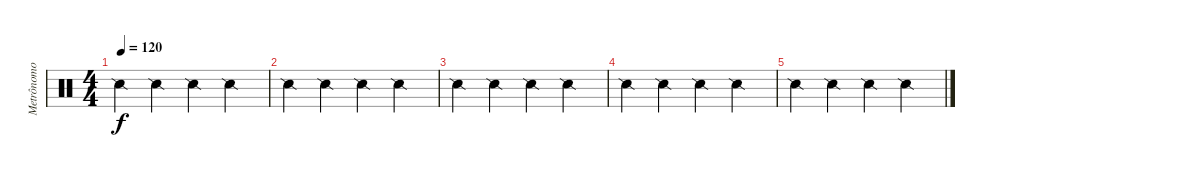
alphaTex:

\track ("Metrônomo" "Metrônomo") {instrument percussion}
\staff {score}
\articulation defaults
\ts (4 4)
\tempo 120
\clef neutral
\ks c "Snare (side stick) 2".4{dy f} "Snare (side stick) 2".4 "Snare (side stick) 2".4 "Snare (side stick) 2".4
|
"Snare (side stick) 2".4 "Snare (side stick) 2".4 "Snare (side stick) 2".4 "Snare (side stick) 2".4 |
"Snare (side stick) 2".4 "Snare (side stick) 2".4 "Snare (side stick) 2".4 "Snare (side stick) 2".4 |
"Snare (side stick) 2".4 "Snare (side stick) 2".4 "Snare (side stick) 2".4 "Snare (side stick) 2".4 |
"Snare (side stick) 2".4 "Snare (side stick) 2".4 "Snare (side stick) 2".4 "Snare (side stick) 2".4
